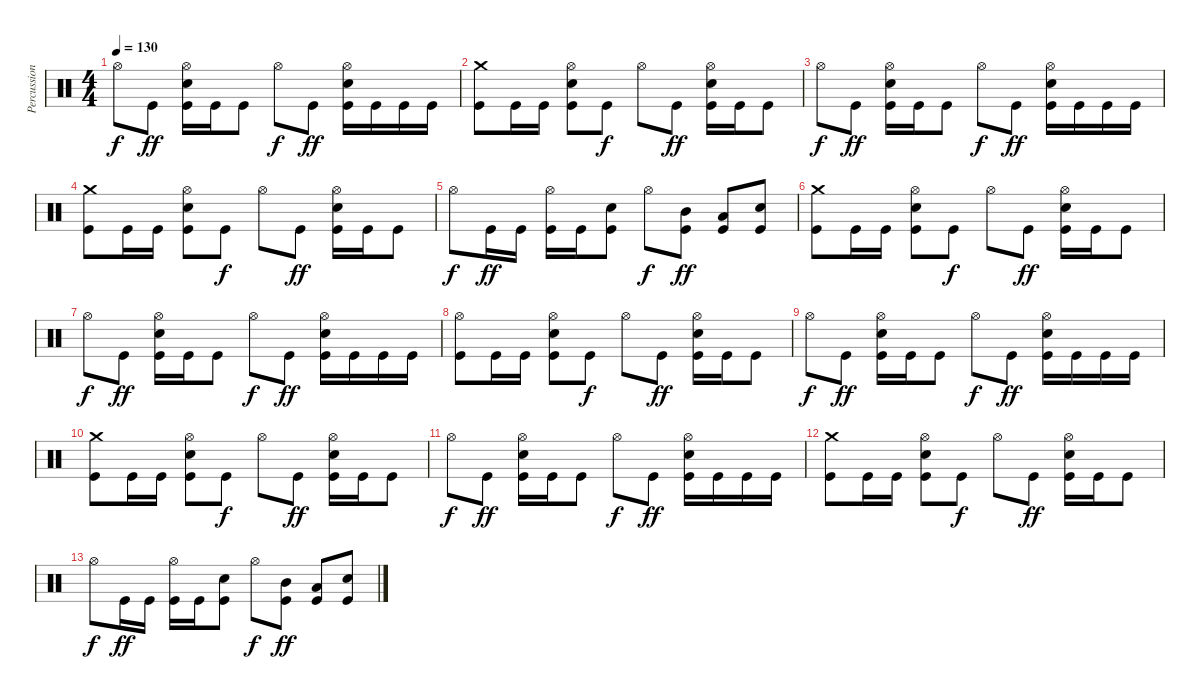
\track ("Percussion" "Percussion") {instrument percussion}
\staff {score}
\articulation defaults
\ts (4 4)
\tempo 130
\clef neutral
\ks c "Hi-Hat (open)".8{dy f} "Kick (hit)".8{dy ff}
("Hi-Hat (open)" "Snare (hit) 2" "Kick (hit)").16 "Kick (hit)".16 "Kick (hit)".8 "Hi-Hat (open)".8{dy f} "Kick (hit)".8{dy ff} ("Hi-Hat (open)" "Snare (hit) 2" "Kick (hit)").16 "Kick (hit)".16 "Kick (hit)".16 "Kick (hit)".16 |
("Crash medium (hit)" "Kick (hit)").8 "Kick (hit)".16 "Kick (hit)".16 ("Hi-Hat (open)" "Snare (hit) 2" "Kick (hit)").8 "Kick (hit)".8{dy f} "Hi-Hat (open)".8 "Kick (hit)".8{dy ff} ("Hi-Hat (open)" "Snare (hit) 2" "Kick (hit)").16 "Kick (hit)".16 "Kick (hit)".8 |
"Hi-Hat (open)".8{dy f} "Kick (hit)".8{dy ff} ("Hi-Hat (open)" "Snare (hit) 2" "Kick (hit)").16 "Kick (hit)".16 "Kick (hit)".8 "Hi-Hat (open)".8{dy f} "Kick (hit)".8{dy ff} ("Hi-Hat (open)" "Snare (hit) 2" "Kick (hit)").16 "Kick (hit)".16 "Kick (hit)".16 "Kick (hit)".16 |
("Crash medium (hit)" "Kick (hit)").8 "Kick (hit)".16 "Kick (hit)".16 ("Hi-Hat (open)" "Snare (hit) 2" "Kick (hit)").8 "Kick (hit)".8{dy f} "Hi-Hat (open)".8 "Kick (hit)".8{dy ff} ("Hi-Hat (open)" "Snare (hit) 2" "Kick (hit)").16 "Kick (hit)".16 "Kick (hit)".8 |
"Hi-Hat (open)".8{dy f} "Kick (hit)".16{dy ff} "Kick (hit)".16 ("Hi-Hat (open)" "Kick (hit)").16 "Kick (hit)".16 ("Snare (hit) 2" "Kick (hit)").8 "Hi-Hat (open)".8{dy f} ("Mid Tom (hit)"{tr (47 16)} "Kick (hit)").8{dy ff} ("Low Tom (hit)"{tr (45 16)} "Kick (hit)").8 ("Snare (hit) 2" "Kick (hit)").8 |
("Crash medium (hit)" "Kick (hit)").8 "Kick (hit)".16 "Kick (hit)".16 ("Hi-Hat (open)" "Snare (hit) 2" "Kick (hit)").8 "Kick (hit)".8{dy f} "Hi-Hat (open)".8 "Kick (hit)".8{dy ff} ("Hi-Hat (open)" "Snare (hit) 2" "Kick (hit)").16 "Kick (hit)".16 "Kick (hit)".8 |
"Hi-Hat (open)".8{dy f} "Kick (hit)".8{dy ff} ("Hi-Hat (open)" "Snare (hit) 2" "Kick (hit)").16 "Kick (hit)".16 "Kick (hit)".8 "Hi-Hat (open)".8{dy f} "Kick (hit)".8{dy ff} ("Hi-Hat (open)" "Snare (hit) 2" "Kick (hit)").16 "Kick (hit)".16 "Kick (hit)".16 "Kick (hit)".16 |
("Hi-Hat (open)" "Kick (hit)").8 "Kick (hit)".16 "Kick (hit)".16 ("Hi-Hat (open)" "Snare (hit) 2" "Kick (hit)").8 "Kick (hit)".8{dy f} "Hi-Hat (open)".8 "Kick (hit)".8{dy ff} ("Hi-Hat (open)" "Snare (hit) 2" "Kick (hit)").16 "Kick (hit)".16 "Kick (hit)".8 |
"Hi-Hat (open)".8{dy f} "Kick (hit)".8{dy ff} ("Hi-Hat (open)" "Snare (hit) 2" "Kick (hit)").16 "Kick (hit)".16 "Kick (hit)".8 "Hi-Hat (open)".8{dy f} "Kick (hit)".8{dy ff} ("Hi-Hat (open)" "Snare (hit) 2" "Kick (hit)").16 "Kick (hit)".16 "Kick (hit)".16 "Kick (hit)".16 |
("Crash medium (hit)" "Kick (hit)").8 "Kick (hit)".16 "Kick (hit)".16 ("Hi-Hat (open)" "Snare (hit) 2" "Kick (hit)").8 "Kick (hit)".8{dy f} "Hi-Hat (open)".8 "Kick (hit)".8{dy ff} ("Hi-Hat (open)" "Snare (hit) 2" "Kick (hit)").16 "Kick (hit)".16 "Kick (hit)".8 |
"Hi-Hat (open)".8{dy f} "Kick (hit)".8{dy ff} ("Hi-Hat (open)" "Snare (hit) 2" "Kick (hit)").16 "Kick (hit)".16 "Kick (hit)".8 "Hi-Hat (open)".8{dy f} "Kick (hit)".8{dy ff} ("Hi-Hat (open)" "Snare (hit) 2" "Kick (hit)").16 "Kick (hit)".16 "Kick (hit)".16 "Kick (hit)".16 |
("Crash medium (hit)" "Kick (hit)").8 "Kick (hit)".16 "Kick (hit)".16 ("Hi-Hat (open)" "Snare (hit) 2" "Kick (hit)").8 "Kick (hit)".8{dy f} "Hi-Hat (open)".8 "Kick (hit)".8{dy ff} ("Hi-Hat (open)" "Snare (hit) 2" "Kick (hit)").16 "Kick (hit)".16 "Kick (hit)".8 |
"Hi-Hat (open)".8{dy f} "Kick (hit)".16{dy ff} "Kick (hit)".16 ("Hi-Hat (open)" "Kick (hit)").16 "Kick (hit)".16 ("Snare (hit) 2" "Kick (hit)").8 "Hi-Hat (open)".8{dy f} ("Mid Tom (hit)"{tr (47 16)} "Kick (hit)").8{dy ff} ("Low Tom (hit)"{tr (45 16)} "Kick (hit)").8 ("Snare (hit) 2" "Kick (hit)").8
